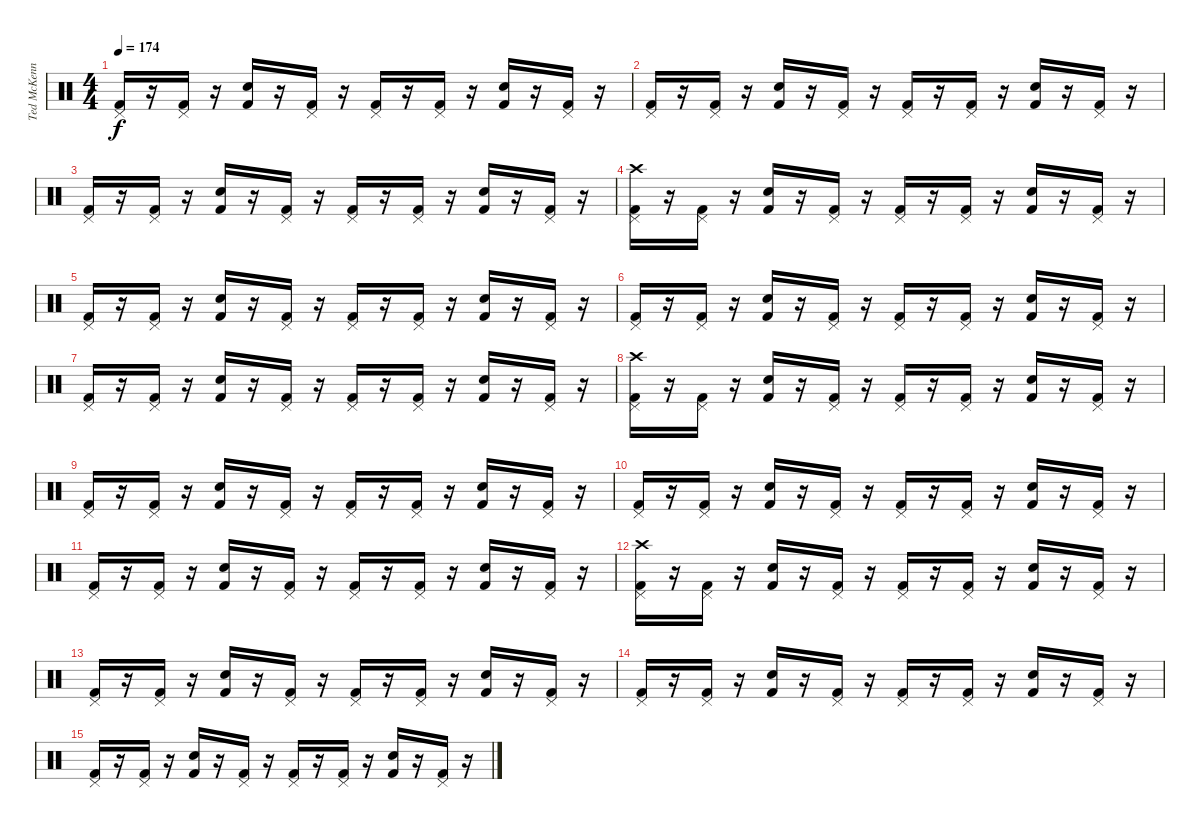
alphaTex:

\track ("Ted McKenna" "Ted McKenn") {instrument percussion}
\staff {score}
\articulation defaults
\ts (4 4)
\tempo 174
\clef neutral
\ks c
("Pedal Hi-Hat (hit)" "Kick (hit) 2").16{dy f} r.16 ("Pedal Hi-Hat (hit)" "Kick (hit) 2").16 r.16 ("Snare (hit) 2" "Kick (hit) 2").16 r.16 ("Pedal Hi-Hat (hit)" "Kick (hit) 2").16 r.16 ("Pedal Hi-Hat (hit)" "Kick (hit) 2").16 r.16 ("Pedal Hi-Hat (hit)" "Kick (hit) 2").16 r.16 ("Snare (hit) 2" "Kick (hit) 2").16 r.16 ("Pedal Hi-Hat (hit)" "Kick (hit) 2").16 r.16 |
("Pedal Hi-Hat (hit)" "Kick (hit) 2").16 r.16 ("Pedal Hi-Hat (hit)" "Kick (hit) 2").16 r.16 ("Snare (hit) 2" "Kick (hit) 2").16 r.16 ("Pedal Hi-Hat (hit)" "Kick (hit) 2").16 r.16 ("Pedal Hi-Hat (hit)" "Kick (hit) 2").16 r.16 ("Pedal Hi-Hat (hit)" "Kick (hit) 2").16 r.16 ("Snare (hit) 2" "Kick (hit) 2").16 r.16 ("Pedal Hi-Hat (hit)" "Kick (hit) 2").16 r.16 |
("Pedal Hi-Hat (hit)" "Kick (hit) 2").16 r.16 ("Pedal Hi-Hat (hit)" "Kick (hit) 2").16 r.16 ("Snare (hit) 2" "Kick (hit) 2").16 r.16 ("Pedal Hi-Hat (hit)" "Kick (hit) 2").16 r.16 ("Pedal Hi-Hat (hit)" "Kick (hit) 2").16 r.16 ("Pedal Hi-Hat (hit)" "Kick (hit) 2").16 r.16 ("Snare (hit) 2" "Kick (hit) 2").16 r.16 ("Pedal Hi-Hat (hit)" "Kick (hit) 2").16 r.16 |
("Crash high (hit)" "Pedal Hi-Hat (hit)" "Kick (hit) 2").16 r.16 ("Pedal Hi-Hat (hit)" "Kick (hit) 2").16 r.16 ("Snare (hit) 2" "Kick (hit) 2").16 r.16 ("Pedal Hi-Hat (hit)" "Kick (hit) 2").16 r.16 ("Pedal Hi-Hat (hit)" "Kick (hit) 2").16 r.16 ("Pedal Hi-Hat (hit)" "Kick (hit) 2").16 r.16 ("Snare (hit) 2" "Kick (hit) 2").16 r.16 ("Pedal Hi-Hat (hit)" "Kick (hit) 2").16 r.16 |
("Pedal Hi-Hat (hit)" "Kick (hit) 2").16 r.16 ("Pedal Hi-Hat (hit)" "Kick (hit) 2").16 r.16 ("Snare (hit) 2" "Kick (hit) 2").16 r.16 ("Pedal Hi-Hat (hit)" "Kick (hit) 2").16 r.16 ("Pedal Hi-Hat (hit)" "Kick (hit) 2").16 r.16 ("Pedal Hi-Hat (hit)" "Kick (hit) 2").16 r.16 ("Snare (hit) 2" "Kick (hit) 2").16 r.16 ("Pedal Hi-Hat (hit)" "Kick (hit) 2").16 r.16 |
("Pedal Hi-Hat (hit)" "Kick (hit) 2").16 r.16 ("Pedal Hi-Hat (hit)" "Kick (hit) 2").16 r.16 ("Snare (hit) 2" "Kick (hit) 2").16 r.16 ("Pedal Hi-Hat (hit)" "Kick (hit) 2").16 r.16 ("Pedal Hi-Hat (hit)" "Kick (hit) 2").16 r.16 ("Pedal Hi-Hat (hit)" "Kick (hit) 2").16 r.16 ("Snare (hit) 2" "Kick (hit) 2").16 r.16 ("Pedal Hi-Hat (hit)" "Kick (hit) 2").16 r.16 |
("Pedal Hi-Hat (hit)" "Kick (hit) 2").16 r.16 ("Pedal Hi-Hat (hit)" "Kick (hit) 2").16 r.16 ("Snare (hit) 2" "Kick (hit) 2").16 r.16 ("Pedal Hi-Hat (hit)" "Kick (hit) 2").16 r.16 ("Pedal Hi-Hat (hit)" "Kick (hit) 2").16 r.16 ("Pedal Hi-Hat (hit)" "Kick (hit) 2").16 r.16 ("Snare (hit) 2" "Kick (hit) 2").16 r.16 ("Pedal Hi-Hat (hit)" "Kick (hit) 2").16 r.16 |
("Crash high (hit)" "Pedal Hi-Hat (hit)" "Kick (hit) 2").16 r.16 ("Pedal Hi-Hat (hit)" "Kick (hit) 2").16 r.16 ("Snare (hit) 2" "Kick (hit) 2").16 r.16 ("Pedal Hi-Hat (hit)" "Kick (hit) 2").16 r.16 ("Pedal Hi-Hat (hit)" "Kick (hit) 2").16 r.16 ("Pedal Hi-Hat (hit)" "Kick (hit) 2").16 r.16 ("Snare (hit) 2" "Kick (hit) 2").16 r.16 ("Pedal Hi-Hat (hit)" "Kick (hit) 2").16 r.16 |
("Pedal Hi-Hat (hit)" "Kick (hit) 2").16 r.16 ("Pedal Hi-Hat (hit)" "Kick (hit) 2").16 r.16 ("Snare (hit) 2" "Kick (hit) 2").16 r.16 ("Pedal Hi-Hat (hit)" "Kick (hit) 2").16 r.16 ("Pedal Hi-Hat (hit)" "Kick (hit) 2").16 r.16 ("Pedal Hi-Hat (hit)" "Kick (hit) 2").16 r.16 ("Snare (hit) 2" "Kick (hit) 2").16 r.16 ("Pedal Hi-Hat (hit)" "Kick (hit) 2").16 r.16 |
("Pedal Hi-Hat (hit)" "Kick (hit) 2").16 r.16 ("Pedal Hi-Hat (hit)" "Kick (hit) 2").16 r.16 ("Snare (hit) 2" "Kick (hit) 2").16 r.16 ("Pedal Hi-Hat (hit)" "Kick (hit) 2").16 r.16 ("Pedal Hi-Hat (hit)" "Kick (hit) 2").16 r.16 ("Pedal Hi-Hat (hit)" "Kick (hit) 2").16 r.16 ("Snare (hit) 2" "Kick (hit) 2").16 r.16 ("Pedal Hi-Hat (hit)" "Kick (hit) 2").16 r.16 |
("Pedal Hi-Hat (hit)" "Kick (hit) 2").16 r.16 ("Pedal Hi-Hat (hit)" "Kick (hit) 2").16 r.16 ("Snare (hit) 2" "Kick (hit) 2").16 r.16 ("Pedal Hi-Hat (hit)" "Kick (hit) 2").16 r.16 ("Pedal Hi-Hat (hit)" "Kick (hit) 2").16 r.16 ("Pedal Hi-Hat (hit)" "Kick (hit) 2").16 r.16 ("Snare (hit) 2" "Kick (hit) 2").16 r.16 ("Pedal Hi-Hat (hit)" "Kick (hit) 2").16 r.16 |
("Crash high (hit)" "Pedal Hi-Hat (hit)" "Kick (hit) 2").16 r.16 ("Pedal Hi-Hat (hit)" "Kick (hit) 2").16 r.16 ("Snare (hit) 2" "Kick (hit) 2").16 r.16 ("Pedal Hi-Hat (hit)" "Kick (hit) 2").16 r.16 ("Pedal Hi-Hat (hit)" "Kick (hit) 2").16 r.16 ("Pedal Hi-Hat (hit)" "Kick (hit) 2").16 r.16 ("Snare (hit) 2" "Kick (hit) 2").16 r.16 ("Pedal Hi-Hat (hit)" "Kick (hit) 2").16 r.16 |
("Pedal Hi-Hat (hit)" "Kick (hit) 2").16 r.16 ("Pedal Hi-Hat (hit)" "Kick (hit) 2").16 r.16 ("Snare (hit) 2" "Kick (hit) 2").16 r.16 ("Pedal Hi-Hat (hit)" "Kick (hit) 2").16 r.16 ("Pedal Hi-Hat (hit)" "Kick (hit) 2").16 r.16 ("Pedal Hi-Hat (hit)" "Kick (hit) 2").16 r.16 ("Snare (hit) 2" "Kick (hit) 2").16 r.16 ("Pedal Hi-Hat (hit)" "Kick (hit) 2").16 r.16 |
("Pedal Hi-Hat (hit)" "Kick (hit) 2").16 r.16 ("Pedal Hi-Hat (hit)" "Kick (hit) 2").16 r.16 ("Snare (hit) 2" "Kick (hit) 2").16 r.16 ("Pedal Hi-Hat (hit)" "Kick (hit) 2").16 r.16 ("Pedal Hi-Hat (hit)" "Kick (hit) 2").16 r.16 ("Pedal Hi-Hat (hit)" "Kick (hit) 2").16 r.16 ("Snare (hit) 2" "Kick (hit) 2").16 r.16 ("Pedal Hi-Hat (hit)" "Kick (hit) 2").16 r.16 |
("Pedal Hi-Hat (hit)" "Kick (hit) 2").16 r.16 ("Pedal Hi-Hat (hit)" "Kick (hit) 2").16 r.16 ("Snare (hit) 2" "Kick (hit) 2").16 r.16 ("Pedal Hi-Hat (hit)" "Kick (hit) 2").16 r.16 ("Pedal Hi-Hat (hit)" "Kick (hit) 2").16 r.16 ("Pedal Hi-Hat (hit)" "Kick (hit) 2").16 r.16 ("Snare (hit) 2" "Kick (hit) 2").16 r.16 ("Pedal Hi-Hat (hit)" "Kick (hit) 2").16 r.16
